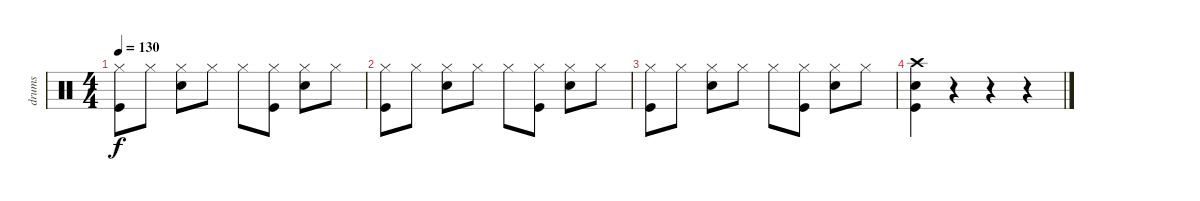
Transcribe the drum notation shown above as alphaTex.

\track ("drums" "drums") {instrument percussion}
\staff {score}
\articulation defaults
\ts (4 4)
\tempo 130
\clef neutral
\ks c
("Hi-Hat (closed)" "Kick (hit)").8{dy f} "Hi-Hat (closed)".8 ("Hi-Hat (closed)" "Snare (hit) 2").8 "Hi-Hat (closed)".8 "Hi-Hat (closed)".8 ("Hi-Hat (closed)" "Kick (hit)").8 ("Hi-Hat (closed)" "Snare (hit) 2").8 "Hi-Hat (closed)".8 |
("Hi-Hat (closed)" "Kick (hit)").8 "Hi-Hat (closed)".8 ("Hi-Hat (closed)" "Snare (hit) 2").8 "Hi-Hat (closed)".8 "Hi-Hat (closed)".8 ("Hi-Hat (closed)" "Kick (hit)").8 ("Hi-Hat (closed)" "Snare (hit) 2").8 "Hi-Hat (closed)".8 |
("Hi-Hat (closed)" "Kick (hit)").8 "Hi-Hat (closed)".8 ("Hi-Hat (closed)" "Snare (hit) 2").8 "Hi-Hat (closed)".8 "Hi-Hat (closed)".8 ("Hi-Hat (closed)" "Kick (hit)").8 ("Hi-Hat (closed)" "Snare (hit) 2").8 "Hi-Hat (closed)".8 |
("Crash high (hit)" "Snare (hit) 2" "Kick (hit)").4 r.4 r.4 r.4
